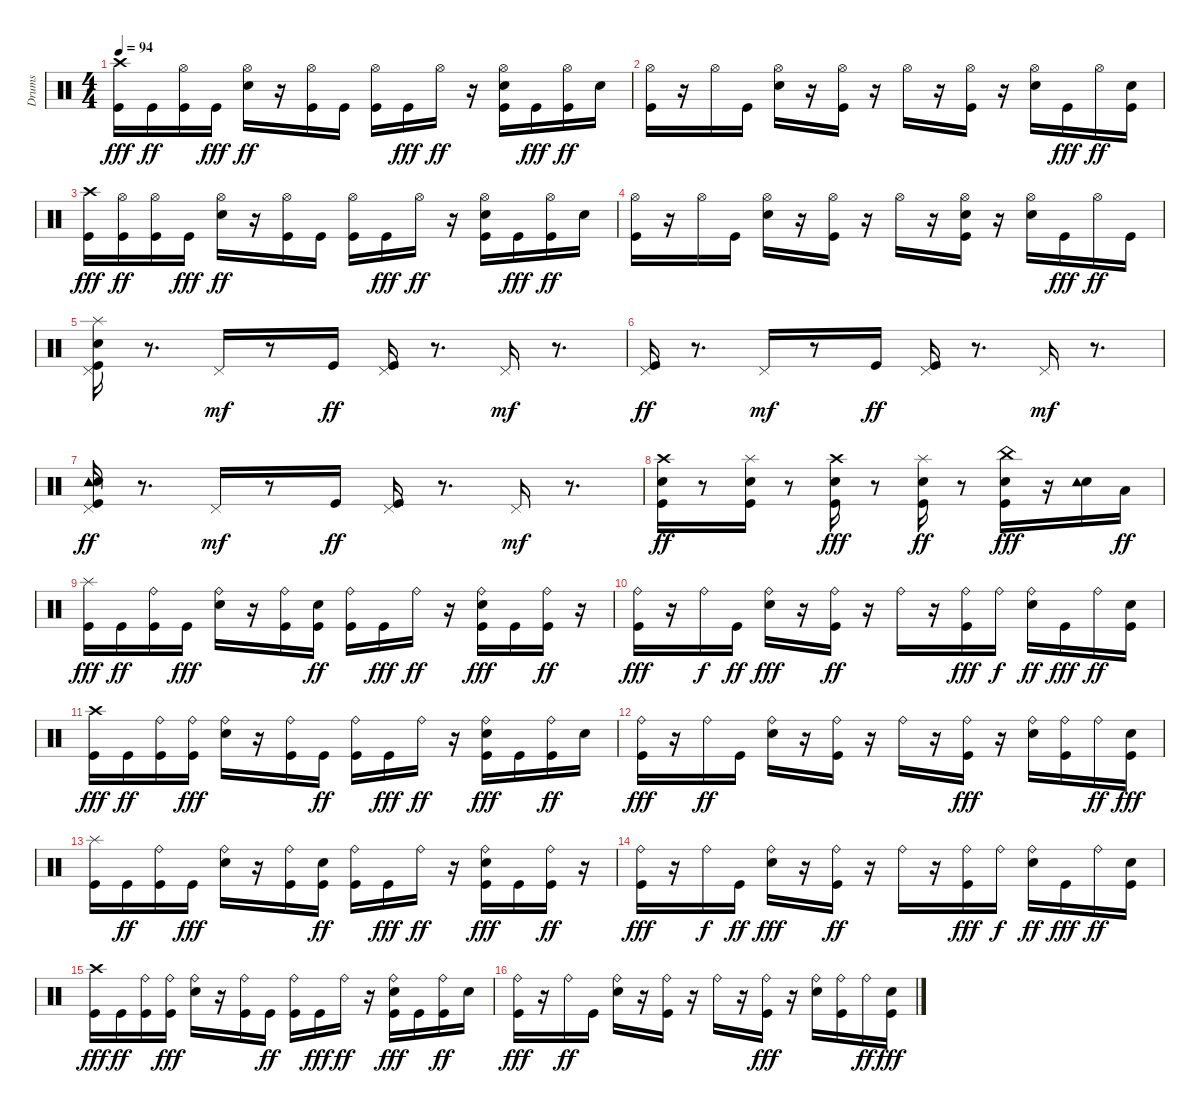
\track ("Drums" "Drums") {instrument percussion}
\staff {score}
\articulation defaults
\ts (4 4)
\tempo 94
\clef neutral
\ks c
("Crash high (hit)" "Kick (hit)").16{dy fff} "Kick (hit)".16{dy ff} ("Kick (hit)" "Hi-Hat (open)").16 "Kick (hit)".16{dy fff} ("Snare (hit) 2" "Hi-Hat (open)").16{dy ff} r.16 ("Kick (hit)" "Hi-Hat (open)").16 "Kick (hit)".16 ("Kick (hit)" "Hi-Hat (open)").16 "Kick (hit)".16{dy fff} "Hi-Hat (open)".16{dy ff} r.16 ("Kick (hit)" "Snare (hit) 2" "Hi-Hat (open)").16 "Kick (hit)".16{dy fff} ("Kick (hit)" "Hi-Hat (open)").16{dy ff} "Snare (hit) 2".16 |
("Kick (hit)" "Hi-Hat (open)").16 r.16 "Hi-Hat (open)".16 "Kick (hit)".16 ("Snare (hit) 2" "Hi-Hat (open)").16 r.16 ("Kick (hit)" "Hi-Hat (open)").16 r.16 "Hi-Hat (open)".16 r.16 ("Kick (hit)" "Hi-Hat (open)").16 r.16 ("Snare (hit) 2" "Hi-Hat (open)").16 "Kick (hit)".16{dy fff} "Hi-Hat (open)".16{dy ff} ("Kick (hit)" "Snare (hit) 2").16 |
("Crash high (hit)" "Kick (hit)").16{dy fff} ("Hi-Hat (open)" "Kick (hit)").16{dy ff} ("Kick (hit)" "Hi-Hat (open)").16 "Kick (hit)".16{dy fff} ("Snare (hit) 2" "Hi-Hat (open)").16{dy ff} r.16 ("Kick (hit)" "Hi-Hat (open)").16 "Kick (hit)".16 ("Kick (hit)" "Hi-Hat (open)").16 "Kick (hit)".16{dy fff} "Hi-Hat (open)".16{dy ff} r.16 ("Kick (hit)" "Snare (hit) 2" "Hi-Hat (open)").16 "Kick (hit)".16{dy fff} ("Kick (hit)" "Hi-Hat (open)").16{dy ff} "Snare (hit) 2".16 |
("Kick (hit)" "Hi-Hat (open)").16 r.16 "Hi-Hat (open)".16 "Kick (hit)".16 ("Snare (hit) 2" "Hi-Hat (open)").16 r.16 ("Kick (hit)" "Hi-Hat (open)").16 r.16 "Hi-Hat (open)".16 r.16 ("Kick (hit)" "Snare (hit) 2" "Hi-Hat (open)").16 r.16 ("Snare (hit) 2" "Hi-Hat (open)").16 "Kick (hit)".16{dy fff} "Hi-Hat (open)".16{dy ff} "Kick (hit)".16 |
("Pedal Hi-Hat (hit)" "Snare (hit) 2" "Splash (hit)" "Kick (hit)").16 r.8{d} "Pedal Hi-Hat (hit)".16{dy mf} r.8 "Kick (hit)".16{dy ff} ("Pedal Hi-Hat (hit)" "Kick (hit)").16 r.8{d} "Pedal Hi-Hat (hit)".16{dy mf} r.8{d} |
("Pedal Hi-Hat (hit)" "Kick (hit)").16{dy ff} r.8{d} "Pedal Hi-Hat (hit)".16{dy mf} r.8 "Kick (hit)".16{dy ff} ("Pedal Hi-Hat (hit)" "Kick (hit)").16 r.8{d} "Pedal Hi-Hat (hit)".16{dy mf} r.8{d} |
("Tambourine (hit)" "Snare (hit) 2" "Pedal Hi-Hat (hit)" "Kick (hit)").16{dy ff} r.8{d} "Pedal Hi-Hat (hit)".16{dy mf} r.8 "Kick (hit)".16{dy ff} ("Pedal Hi-Hat (hit)" "Kick (hit)").16 r.8{d} "Pedal Hi-Hat (hit)".16{dy mf} r.8{d} |
("Snare (hit) 2" "Crash high (hit)" "Kick (hit)").16{dy ff} r.8 ("Kick (hit)" "Snare (hit) 2" "Splash (hit)").16 r.8 ("Kick (hit)" "Snare (hit) 2" "Crash high (hit)").16{dy fff} r.8 ("Splash (hit)" "Snare (hit) 2" "Kick (hit)").16{dy ff} r.8 ("China (hit)" "Kick (hit)" "Snare (hit) 2").16{dy fff} r.16 ("Snare (hit) 2" "Tambourine (hit)").16 "Low Floor Tom (hit)".16{dy ff} |
("Splash (hit)" "Kick (hit)").16{dy fff} "Kick (hit)".16{dy ff} ("Ride (bell)" "Kick (hit)").16 "Kick (hit)".16{dy fff} ("Ride (bell)" "Snare (hit) 2").16 r.16 ("Ride (bell)" "Kick (hit)").16 ("Kick (hit)" "Snare (hit) 2").16{dy ff} ("Ride (bell)" "Kick (hit)").16 "Kick (hit)".16{dy fff} "Ride (bell)".16{dy ff} r.16 ("Ride (bell)" "Kick (hit)" "Snare (hit) 2").16{dy fff} "Kick (hit)".16 ("Ride (bell)" "Kick (hit)").16{dy ff} r.16 |
("Ride (bell)" "Kick (hit)").16{dy fff} r.16 "Ride (bell)".16{dy f} "Kick (hit)".16{dy ff} ("Ride (bell)" "Snare (hit) 2").16{dy fff} r.16 ("Ride (bell)" "Kick (hit)").16{dy ff} r.16 "Ride (bell)".16 r.16 ("Ride (bell)" "Kick (hit)").16{dy fff} "Ride (bell)".16{dy f} ("Ride (bell)" "Snare (hit) 2").16{dy ff} "Kick (hit)".16{dy fff} "Ride (bell)".16{dy ff} ("Kick (hit)" "Snare (hit) 2").16 |
("Crash high (hit)" "Kick (hit)").16{dy fff} "Kick (hit)".16{dy ff} ("Ride (bell)" "Kick (hit)").16 ("Ride (bell)" "Kick (hit)").16{dy fff} ("Ride (bell)" "Snare (hit) 2").16 r.16 ("Ride (bell)" "Kick (hit)").16 "Kick (hit)".16{dy ff} ("Ride (bell)" "Kick (hit)").16 "Kick (hit)".16{dy fff} "Ride (bell)".16{dy ff} r.16 ("Ride (bell)" "Kick (hit)" "Snare (hit) 2").16{dy fff} "Kick (hit)".16 ("Ride (bell)" "Kick (hit)").16{dy ff} "Snare (hit) 2".16 |
("Ride (bell)" "Kick (hit)").16{dy fff} r.16 "Ride (bell)".16{dy ff} "Kick (hit)".16 ("Ride (bell)" "Snare (hit) 2").16 r.16 ("Ride (bell)" "Kick (hit)").16 r.16 "Ride (bell)".16 r.16 ("Ride (bell)" "Kick (hit)").16{dy fff} r.16 ("Ride (bell)" "Snare (hit) 2").16 ("Ride (bell)" "Kick (hit)").16 "Ride (bell)".16{dy ff} ("Kick (hit)" "Snare (hit) 2").16{dy fff} |
("Splash (hit)" "Kick (hit)").16 "Kick (hit)".16{dy ff} ("Ride (bell)" "Kick (hit)").16 "Kick (hit)".16{dy fff} ("Ride (bell)" "Snare (hit) 2").16 r.16 ("Ride (bell)" "Kick (hit)").16 ("Kick (hit)" "Snare (hit) 2").16{dy ff} ("Ride (bell)" "Kick (hit)").16 "Kick (hit)".16{dy fff} "Ride (bell)".16{dy ff} r.16 ("Ride (bell)" "Kick (hit)" "Snare (hit) 2").16{dy fff} "Kick (hit)".16 ("Ride (bell)" "Kick (hit)").16{dy ff} r.16 |
("Ride (bell)" "Kick (hit)").16{dy fff} r.16 "Ride (bell)".16{dy f} "Kick (hit)".16{dy ff} ("Ride (bell)" "Snare (hit) 2").16{dy fff} r.16 ("Ride (bell)" "Kick (hit)").16{dy ff} r.16 "Ride (bell)".16 r.16 ("Ride (bell)" "Kick (hit)").16{dy fff} "Ride (bell)".16{dy f} ("Ride (bell)" "Snare (hit) 2").16{dy ff} "Kick (hit)".16{dy fff} "Ride (bell)".16{dy ff} ("Kick (hit)" "Snare (hit) 2").16 |
("Crash high (hit)" "Kick (hit)").16{dy fff} "Kick (hit)".16{dy ff} ("Ride (bell)" "Kick (hit)").16 ("Ride (bell)" "Kick (hit)").16{dy fff} ("Ride (bell)" "Snare (hit) 2").16 r.16 ("Ride (bell)" "Kick (hit)").16 "Kick (hit)".16{dy ff} ("Ride (bell)" "Kick (hit)").16 "Kick (hit)".16{dy fff} "Ride (bell)".16{dy ff} r.16 ("Ride (bell)" "Kick (hit)" "Snare (hit) 2").16{dy fff} "Kick (hit)".16 ("Ride (bell)" "Kick (hit)").16{dy ff} "Snare (hit) 2".16 |
("Ride (bell)" "Kick (hit)").16{dy fff} r.16 "Ride (bell)".16{dy ff} "Kick (hit)".16 ("Ride (bell)" "Snare (hit) 2").16 r.16 ("Ride (bell)" "Kick (hit)").16 r.16 "Ride (bell)".16 r.16 ("Ride (bell)" "Kick (hit)").16{dy fff} r.16 ("Ride (bell)" "Snare (hit) 2").16 ("Ride (bell)" "Kick (hit)").16 "Ride (bell)".16{dy ff} ("Kick (hit)" "Snare (hit) 2").16{dy fff}
